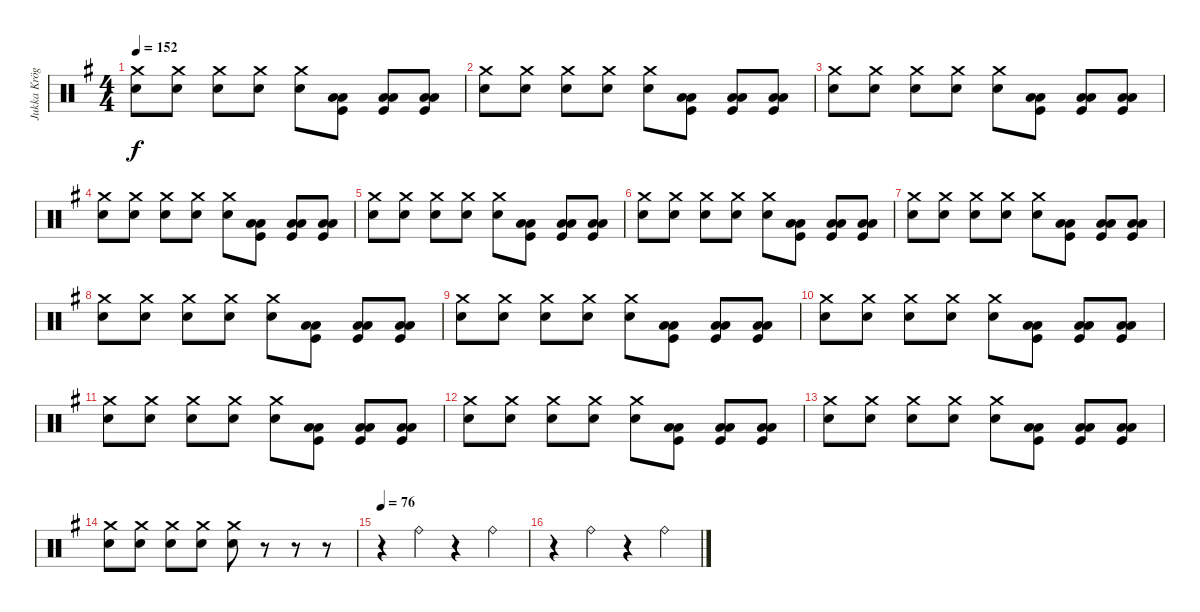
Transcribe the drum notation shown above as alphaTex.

\track ("Jukka Kröger" "Jukka Krög") {instrument percussion}
\staff {score}
\articulation defaults
\ts (4 4)
\tempo 152
\clef neutral
\ks eminor
("Crash medium (hit)" "Snare (hit) 2").8{dy f} ("Crash medium (hit)" "Snare (hit) 2").8 ("Crash medium (hit)" "Snare (hit) 2").8 ("Crash medium (hit)" "Snare (hit) 2").8 ("Crash medium (hit)" "Snare (hit) 2").8 ("Kick (hit)" "Low Tom (hit)" "Low Floor Tom (hit)").8 ("Kick (hit)" "Low Tom (hit)" "Low Floor Tom (hit)").8 ("Kick (hit)" "Low Tom (hit)" "Low Floor Tom (hit)").8 |
("Crash medium (hit)" "Snare (hit) 2").8 ("Crash medium (hit)" "Snare (hit) 2").8 ("Crash medium (hit)" "Snare (hit) 2").8 ("Crash medium (hit)" "Snare (hit) 2").8 ("Crash medium (hit)" "Snare (hit) 2").8 ("Kick (hit)" "Low Tom (hit)" "Low Floor Tom (hit)").8 ("Kick (hit)" "Low Tom (hit)" "Low Floor Tom (hit)").8 ("Kick (hit)" "Low Tom (hit)" "Low Floor Tom (hit)").8 |
("Crash medium (hit)" "Snare (hit) 2").8 ("Crash medium (hit)" "Snare (hit) 2").8 ("Crash medium (hit)" "Snare (hit) 2").8 ("Crash medium (hit)" "Snare (hit) 2").8 ("Crash medium (hit)" "Snare (hit) 2").8 ("Kick (hit)" "Low Tom (hit)" "Low Floor Tom (hit)").8 ("Kick (hit)" "Low Tom (hit)" "Low Floor Tom (hit)").8 ("Kick (hit)" "Low Tom (hit)" "Low Floor Tom (hit)").8 |
("Crash medium (hit)" "Snare (hit) 2").8 ("Crash medium (hit)" "Snare (hit) 2").8 ("Crash medium (hit)" "Snare (hit) 2").8 ("Crash medium (hit)" "Snare (hit) 2").8 ("Crash medium (hit)" "Snare (hit) 2").8 ("Kick (hit)" "Low Tom (hit)" "Low Floor Tom (hit)").8 ("Kick (hit)" "Low Tom (hit)" "Low Floor Tom (hit)").8 ("Kick (hit)" "Low Tom (hit)" "Low Floor Tom (hit)").8 |
("Crash medium (hit)" "Snare (hit) 2").8 ("Crash medium (hit)" "Snare (hit) 2").8 ("Crash medium (hit)" "Snare (hit) 2").8 ("Crash medium (hit)" "Snare (hit) 2").8 ("Crash medium (hit)" "Snare (hit) 2").8 ("Kick (hit)" "Low Tom (hit)" "Low Floor Tom (hit)").8 ("Kick (hit)" "Low Tom (hit)" "Low Floor Tom (hit)").8 ("Kick (hit)" "Low Tom (hit)" "Low Floor Tom (hit)").8 |
("Crash medium (hit)" "Snare (hit) 2").8 ("Crash medium (hit)" "Snare (hit) 2").8 ("Crash medium (hit)" "Snare (hit) 2").8 ("Crash medium (hit)" "Snare (hit) 2").8 ("Crash medium (hit)" "Snare (hit) 2").8 ("Kick (hit)" "Low Tom (hit)" "Low Floor Tom (hit)").8 ("Kick (hit)" "Low Tom (hit)" "Low Floor Tom (hit)").8 ("Kick (hit)" "Low Tom (hit)" "Low Floor Tom (hit)").8 |
("Crash medium (hit)" "Snare (hit) 2").8 ("Crash medium (hit)" "Snare (hit) 2").8 ("Crash medium (hit)" "Snare (hit) 2").8 ("Crash medium (hit)" "Snare (hit) 2").8 ("Crash medium (hit)" "Snare (hit) 2").8 ("Kick (hit)" "Low Tom (hit)" "Low Floor Tom (hit)").8 ("Kick (hit)" "Low Tom (hit)" "Low Floor Tom (hit)").8 ("Kick (hit)" "Low Tom (hit)" "Low Floor Tom (hit)").8 |
("Crash medium (hit)" "Snare (hit) 2").8 ("Crash medium (hit)" "Snare (hit) 2").8 ("Crash medium (hit)" "Snare (hit) 2").8 ("Crash medium (hit)" "Snare (hit) 2").8 ("Crash medium (hit)" "Snare (hit) 2").8 ("Kick (hit)" "Low Tom (hit)" "Low Floor Tom (hit)").8 ("Kick (hit)" "Low Tom (hit)" "Low Floor Tom (hit)").8 ("Kick (hit)" "Low Tom (hit)" "Low Floor Tom (hit)").8 |
("Crash medium (hit)" "Snare (hit) 2").8 ("Crash medium (hit)" "Snare (hit) 2").8 ("Crash medium (hit)" "Snare (hit) 2").8 ("Crash medium (hit)" "Snare (hit) 2").8 ("Crash medium (hit)" "Snare (hit) 2").8 ("Kick (hit)" "Low Tom (hit)" "Low Floor Tom (hit)").8 ("Kick (hit)" "Low Tom (hit)" "Low Floor Tom (hit)").8 ("Kick (hit)" "Low Tom (hit)" "Low Floor Tom (hit)").8 |
("Crash medium (hit)" "Snare (hit) 2").8 ("Crash medium (hit)" "Snare (hit) 2").8 ("Crash medium (hit)" "Snare (hit) 2").8 ("Crash medium (hit)" "Snare (hit) 2").8 ("Crash medium (hit)" "Snare (hit) 2").8 ("Kick (hit)" "Low Tom (hit)" "Low Floor Tom (hit)").8 ("Kick (hit)" "Low Tom (hit)" "Low Floor Tom (hit)").8 ("Kick (hit)" "Low Tom (hit)" "Low Floor Tom (hit)").8 |
("Crash medium (hit)" "Snare (hit) 2").8 ("Crash medium (hit)" "Snare (hit) 2").8 ("Crash medium (hit)" "Snare (hit) 2").8 ("Crash medium (hit)" "Snare (hit) 2").8 ("Crash medium (hit)" "Snare (hit) 2").8 ("Kick (hit)" "Low Tom (hit)" "Low Floor Tom (hit)").8 ("Kick (hit)" "Low Tom (hit)" "Low Floor Tom (hit)").8 ("Kick (hit)" "Low Tom (hit)" "Low Floor Tom (hit)").8 |
("Crash medium (hit)" "Snare (hit) 2").8 ("Crash medium (hit)" "Snare (hit) 2").8 ("Crash medium (hit)" "Snare (hit) 2").8 ("Crash medium (hit)" "Snare (hit) 2").8 ("Crash medium (hit)" "Snare (hit) 2").8 ("Kick (hit)" "Low Tom (hit)" "Low Floor Tom (hit)").8 ("Kick (hit)" "Low Tom (hit)" "Low Floor Tom (hit)").8 ("Kick (hit)" "Low Tom (hit)" "Low Floor Tom (hit)").8 |
("Crash medium (hit)" "Snare (hit) 2").8 ("Crash medium (hit)" "Snare (hit) 2").8 ("Crash medium (hit)" "Snare (hit) 2").8 ("Crash medium (hit)" "Snare (hit) 2").8 ("Crash medium (hit)" "Snare (hit) 2").8 ("Kick (hit)" "Low Tom (hit)" "Low Floor Tom (hit)").8 ("Kick (hit)" "Low Tom (hit)" "Low Floor Tom (hit)").8 ("Kick (hit)" "Low Tom (hit)" "Low Floor Tom (hit)").8 |
("Crash medium (hit)" "Snare (hit) 2").8 ("Crash medium (hit)" "Snare (hit) 2").8 ("Crash medium (hit)" "Snare (hit) 2").8 ("Crash medium (hit)" "Snare (hit) 2").8 ("Crash medium (hit)" "Snare (hit) 2").8 r.8 r.8 r.8 |
\tempo 76
r.4 "Ride (bell)".4 r.4 "Ride (bell)".4 |
r.4 "Ride (bell)".4 r.4 "Ride (bell)".4
